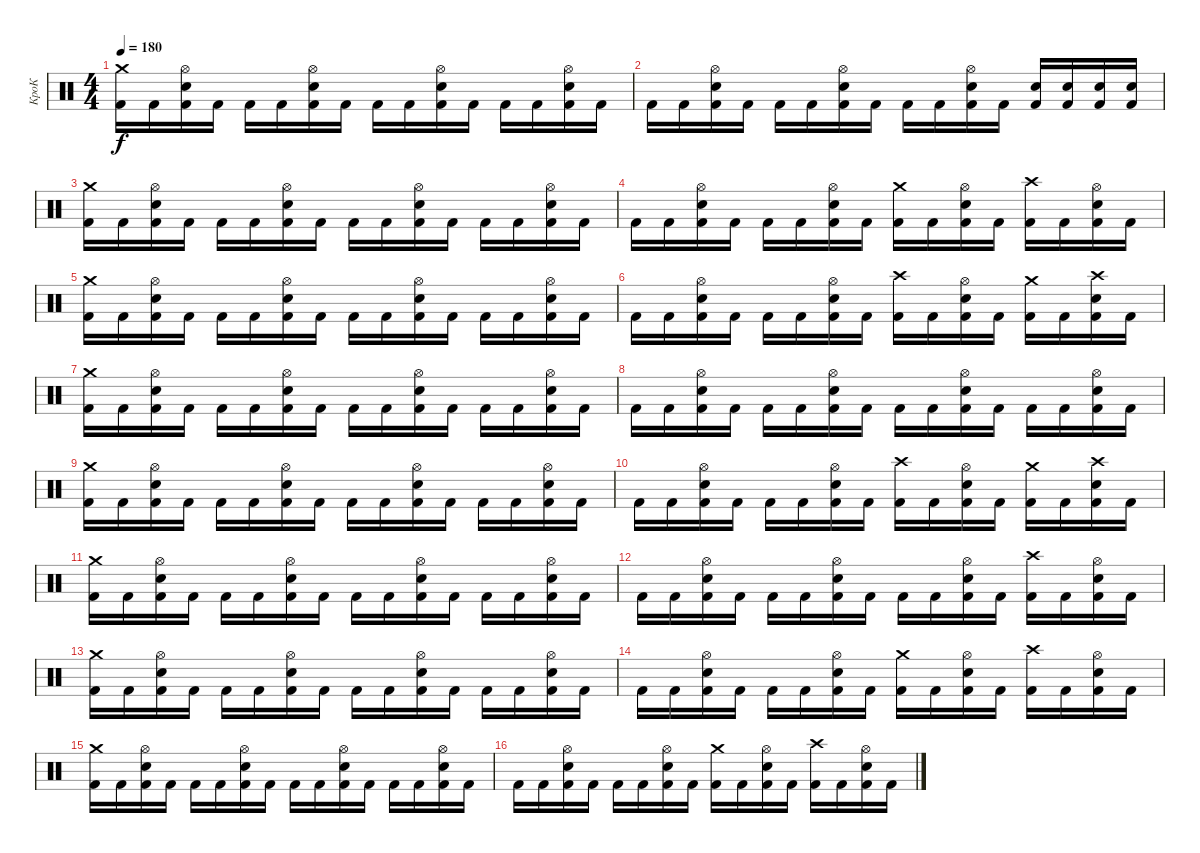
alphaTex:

\track ("КроК" "КроК") {instrument percussion}
\staff {score}
\articulation defaults
\ts (4 4)
\tempo 180
\clef neutral
\ks c
("Kick (hit) 2" "Crash medium (hit)").16{dy f} "Kick (hit) 2".16 ("Kick (hit) 2" "Electric Snare (hit)" "Hi-Hat (open)").16 "Kick (hit) 2".16 "Kick (hit) 2".16 "Kick (hit) 2".16 ("Kick (hit) 2" "Electric Snare (hit)" "Hi-Hat (open)").16 "Kick (hit) 2".16 "Kick (hit) 2".16 "Kick (hit) 2".16 ("Kick (hit) 2" "Electric Snare (hit)" "Hi-Hat (open)").16 "Kick (hit) 2".16 "Kick (hit) 2".16 "Kick (hit) 2".16 ("Kick (hit) 2" "Electric Snare (hit)" "Hi-Hat (open)").16 "Kick (hit) 2".16 |
"Kick (hit) 2".16 "Kick (hit) 2".16 ("Kick (hit) 2" "Electric Snare (hit)" "Hi-Hat (open)").16 "Kick (hit) 2".16 "Kick (hit) 2".16 "Kick (hit) 2".16 ("Kick (hit) 2" "Electric Snare (hit)" "Hi-Hat (open)").16 "Kick (hit) 2".16 "Kick (hit) 2".16 "Kick (hit) 2".16 ("Kick (hit) 2" "Electric Snare (hit)" "Hi-Hat (open)").16 "Kick (hit) 2".16 ("Kick (hit) 2" "Electric Snare (hit)").16 ("Kick (hit) 2" "Electric Snare (hit)").16 ("Kick (hit) 2" "Electric Snare (hit)").16 ("Kick (hit) 2" "Electric Snare (hit)").16 |
("Kick (hit) 2" "Crash medium (hit)").16 "Kick (hit) 2".16 ("Kick (hit) 2" "Electric Snare (hit)" "Hi-Hat (open)").16 "Kick (hit) 2".16 "Kick (hit) 2".16 "Kick (hit) 2".16 ("Kick (hit) 2" "Electric Snare (hit)" "Hi-Hat (open)").16 "Kick (hit) 2".16 "Kick (hit) 2".16 "Kick (hit) 2".16 ("Kick (hit) 2" "Electric Snare (hit)" "Hi-Hat (open)").16 "Kick (hit) 2".16 "Kick (hit) 2".16 "Kick (hit) 2".16 ("Kick (hit) 2" "Electric Snare (hit)" "Hi-Hat (open)").16 "Kick (hit) 2".16 |
"Kick (hit) 2".16 "Kick (hit) 2".16 ("Kick (hit) 2" "Electric Snare (hit)" "Hi-Hat (open)").16 "Kick (hit) 2".16 "Kick (hit) 2".16 "Kick (hit) 2".16 ("Kick (hit) 2" "Electric Snare (hit)" "Hi-Hat (open)").16 "Kick (hit) 2".16 ("Kick (hit) 2" "Crash medium (hit)").16 "Kick (hit) 2".16 ("Kick (hit) 2" "Electric Snare (hit)" "Hi-Hat (open)").16 "Kick (hit) 2".16 ("Kick (hit) 2" "Crash high (hit)").16 "Kick (hit) 2".16 ("Kick (hit) 2" "Electric Snare (hit)" "Hi-Hat (open)").16 "Kick (hit) 2".16 |
("Kick (hit) 2" "Crash medium (hit)").16 "Kick (hit) 2".16 ("Kick (hit) 2" "Electric Snare (hit)" "Hi-Hat (open)").16 "Kick (hit) 2".16 "Kick (hit) 2".16 "Kick (hit) 2".16 ("Kick (hit) 2" "Electric Snare (hit)" "Hi-Hat (open)").16 "Kick (hit) 2".16 "Kick (hit) 2".16 "Kick (hit) 2".16 ("Kick (hit) 2" "Electric Snare (hit)" "Hi-Hat (open)").16 "Kick (hit) 2".16 "Kick (hit) 2".16 "Kick (hit) 2".16 ("Kick (hit) 2" "Electric Snare (hit)" "Hi-Hat (open)").16 "Kick (hit) 2".16 |
"Kick (hit) 2".16 "Kick (hit) 2".16 ("Kick (hit) 2" "Electric Snare (hit)" "Hi-Hat (open)").16 "Kick (hit) 2".16 "Kick (hit) 2".16 "Kick (hit) 2".16 ("Kick (hit) 2" "Electric Snare (hit)" "Hi-Hat (open)").16 "Kick (hit) 2".16 ("Kick (hit) 2" "Crash high (hit)").16 "Kick (hit) 2".16 ("Kick (hit) 2" "Electric Snare (hit)" "Hi-Hat (open)").16 "Kick (hit) 2".16 ("Kick (hit) 2" "Crash medium (hit)").16 "Kick (hit) 2".16 ("Kick (hit) 2" "Electric Snare (hit)" "Crash high (hit)").16 "Kick (hit) 2".16 |
("Kick (hit) 2" "Crash medium (hit)").16 "Kick (hit) 2".16 ("Kick (hit) 2" "Electric Snare (hit)" "Hi-Hat (open)").16 "Kick (hit) 2".16 "Kick (hit) 2".16 "Kick (hit) 2".16 ("Kick (hit) 2" "Electric Snare (hit)" "Hi-Hat (open)").16 "Kick (hit) 2".16 "Kick (hit) 2".16 "Kick (hit) 2".16 ("Kick (hit) 2" "Electric Snare (hit)" "Hi-Hat (open)").16 "Kick (hit) 2".16 "Kick (hit) 2".16 "Kick (hit) 2".16 ("Kick (hit) 2" "Electric Snare (hit)" "Hi-Hat (open)").16 "Kick (hit) 2".16 |
"Kick (hit) 2".16 "Kick (hit) 2".16 ("Kick (hit) 2" "Electric Snare (hit)" "Hi-Hat (open)").16 "Kick (hit) 2".16 "Kick (hit) 2".16 "Kick (hit) 2".16 ("Kick (hit) 2" "Electric Snare (hit)" "Hi-Hat (open)").16 "Kick (hit) 2".16 "Kick (hit) 2".16 "Kick (hit) 2".16 ("Kick (hit) 2" "Electric Snare (hit)" "Hi-Hat (open)").16 "Kick (hit) 2".16 "Kick (hit) 2".16 "Kick (hit) 2".16 ("Kick (hit) 2" "Electric Snare (hit)" "Hi-Hat (open)").16 "Kick (hit) 2".16 |
("Kick (hit) 2" "Crash medium (hit)").16 "Kick (hit) 2".16 ("Kick (hit) 2" "Electric Snare (hit)" "Hi-Hat (open)").16 "Kick (hit) 2".16 "Kick (hit) 2".16 "Kick (hit) 2".16 ("Kick (hit) 2" "Electric Snare (hit)" "Hi-Hat (open)").16 "Kick (hit) 2".16 "Kick (hit) 2".16 "Kick (hit) 2".16 ("Kick (hit) 2" "Electric Snare (hit)" "Hi-Hat (open)").16 "Kick (hit) 2".16 "Kick (hit) 2".16 "Kick (hit) 2".16 ("Kick (hit) 2" "Electric Snare (hit)" "Hi-Hat (open)").16 "Kick (hit) 2".16 |
"Kick (hit) 2".16 "Kick (hit) 2".16 ("Kick (hit) 2" "Electric Snare (hit)" "Hi-Hat (open)").16 "Kick (hit) 2".16 "Kick (hit) 2".16 "Kick (hit) 2".16 ("Kick (hit) 2" "Electric Snare (hit)" "Hi-Hat (open)").16 "Kick (hit) 2".16 ("Kick (hit) 2" "Crash high (hit)").16 "Kick (hit) 2".16 ("Kick (hit) 2" "Electric Snare (hit)" "Hi-Hat (open)").16 "Kick (hit) 2".16 ("Kick (hit) 2" "Crash medium (hit)").16 "Kick (hit) 2".16 ("Kick (hit) 2" "Electric Snare (hit)" "Crash high (hit)").16 "Kick (hit) 2".16 |
("Kick (hit) 2" "Crash medium (hit)").16 "Kick (hit) 2".16 ("Kick (hit) 2" "Electric Snare (hit)" "Hi-Hat (open)").16 "Kick (hit) 2".16 "Kick (hit) 2".16 "Kick (hit) 2".16 ("Kick (hit) 2" "Electric Snare (hit)" "Hi-Hat (open)").16 "Kick (hit) 2".16 "Kick (hit) 2".16 "Kick (hit) 2".16 ("Kick (hit) 2" "Electric Snare (hit)" "Hi-Hat (open)").16 "Kick (hit) 2".16 "Kick (hit) 2".16 "Kick (hit) 2".16 ("Kick (hit) 2" "Electric Snare (hit)" "Hi-Hat (open)").16 "Kick (hit) 2".16 |
"Kick (hit) 2".16 "Kick (hit) 2".16 ("Kick (hit) 2" "Electric Snare (hit)" "Hi-Hat (open)").16 "Kick (hit) 2".16 "Kick (hit) 2".16 "Kick (hit) 2".16 ("Kick (hit) 2" "Electric Snare (hit)" "Hi-Hat (open)").16 "Kick (hit) 2".16 "Kick (hit) 2".16 "Kick (hit) 2".16 ("Kick (hit) 2" "Electric Snare (hit)" "Hi-Hat (open)").16 "Kick (hit) 2".16 ("Kick (hit) 2" "Crash high (hit)").16 "Kick (hit) 2".16 ("Kick (hit) 2" "Electric Snare (hit)" "Hi-Hat (open)").16 "Kick (hit) 2".16 |
("Kick (hit) 2" "Crash medium (hit)").16 "Kick (hit) 2".16 ("Kick (hit) 2" "Electric Snare (hit)" "Hi-Hat (open)").16 "Kick (hit) 2".16 "Kick (hit) 2".16 "Kick (hit) 2".16 ("Kick (hit) 2" "Electric Snare (hit)" "Hi-Hat (open)").16 "Kick (hit) 2".16 "Kick (hit) 2".16 "Kick (hit) 2".16 ("Kick (hit) 2" "Electric Snare (hit)" "Hi-Hat (open)").16 "Kick (hit) 2".16 "Kick (hit) 2".16 "Kick (hit) 2".16 ("Kick (hit) 2" "Electric Snare (hit)" "Hi-Hat (open)").16 "Kick (hit) 2".16 |
"Kick (hit) 2".16 "Kick (hit) 2".16 ("Kick (hit) 2" "Electric Snare (hit)" "Hi-Hat (open)").16 "Kick (hit) 2".16 "Kick (hit) 2".16 "Kick (hit) 2".16 ("Kick (hit) 2" "Electric Snare (hit)" "Hi-Hat (open)").16 "Kick (hit) 2".16 ("Kick (hit) 2" "Crash medium (hit)").16 "Kick (hit) 2".16 ("Kick (hit) 2" "Electric Snare (hit)" "Hi-Hat (open)").16 "Kick (hit) 2".16 ("Kick (hit) 2" "Crash high (hit)").16 "Kick (hit) 2".16 ("Kick (hit) 2" "Electric Snare (hit)" "Hi-Hat (open)").16 "Kick (hit) 2".16 |
("Kick (hit) 2" "Crash medium (hit)").16 "Kick (hit) 2".16 ("Kick (hit) 2" "Electric Snare (hit)" "Hi-Hat (open)").16 "Kick (hit) 2".16 "Kick (hit) 2".16 "Kick (hit) 2".16 ("Kick (hit) 2" "Electric Snare (hit)" "Hi-Hat (open)").16 "Kick (hit) 2".16 "Kick (hit) 2".16 "Kick (hit) 2".16 ("Kick (hit) 2" "Electric Snare (hit)" "Hi-Hat (open)").16 "Kick (hit) 2".16 "Kick (hit) 2".16 "Kick (hit) 2".16 ("Kick (hit) 2" "Electric Snare (hit)" "Hi-Hat (open)").16 "Kick (hit) 2".16 |
"Kick (hit) 2".16 "Kick (hit) 2".16 ("Kick (hit) 2" "Electric Snare (hit)" "Hi-Hat (open)").16 "Kick (hit) 2".16 "Kick (hit) 2".16 "Kick (hit) 2".16 ("Kick (hit) 2" "Electric Snare (hit)" "Hi-Hat (open)").16 "Kick (hit) 2".16 ("Kick (hit) 2" "Crash medium (hit)").16 "Kick (hit) 2".16 ("Kick (hit) 2" "Electric Snare (hit)" "Hi-Hat (open)").16 "Kick (hit) 2".16 ("Kick (hit) 2" "Crash high (hit)").16 "Kick (hit) 2".16 ("Kick (hit) 2" "Electric Snare (hit)" "Hi-Hat (open)").16 "Kick (hit) 2".16
